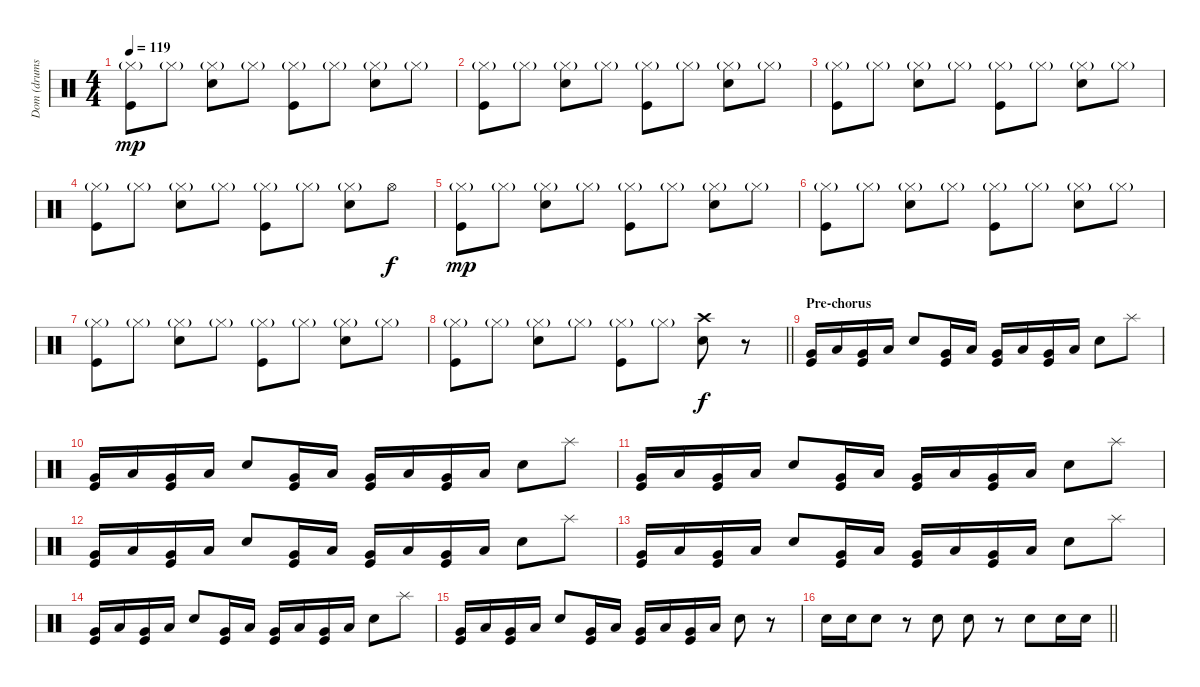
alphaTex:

\track ("Dom (drums)" "Dom (drums") {instrument percussion}
\staff {score}
\articulation defaults
\ts (4 4)
\tempo 119
\clef neutral
\ks c
("Hi-Hat (closed)"{g} "Kick (hit)").8{dy mp} "Hi-Hat (closed)"{g}.8 ("Hi-Hat (closed)"{g} "Snare (hit) 2").8 "Hi-Hat (closed)"{g}.8 ("Hi-Hat (closed)"{g} "Kick (hit)").8 "Hi-Hat (closed)"{g}.8 ("Hi-Hat (closed)"{g} "Snare (hit) 2").8 "Hi-Hat (closed)"{g}.8 |
("Hi-Hat (closed)"{g} "Kick (hit)").8 "Hi-Hat (closed)"{g}.8 ("Hi-Hat (closed)"{g} "Snare (hit) 2").8 "Hi-Hat (closed)"{g}.8 ("Hi-Hat (closed)"{g} "Kick (hit)").8 "Hi-Hat (closed)"{g}.8 ("Hi-Hat (closed)"{g} "Snare (hit) 2").8 "Hi-Hat (closed)"{g}.8 |
("Hi-Hat (closed)"{g} "Kick (hit)").8 "Hi-Hat (closed)"{g}.8 ("Hi-Hat (closed)"{g} "Snare (hit) 2").8 "Hi-Hat (closed)"{g}.8 ("Hi-Hat (closed)"{g} "Kick (hit)").8 "Hi-Hat (closed)"{g}.8 ("Hi-Hat (closed)"{g} "Snare (hit) 2").8 "Hi-Hat (closed)"{g}.8 |
("Hi-Hat (closed)"{g} "Kick (hit)").8 "Hi-Hat (closed)"{g}.8 ("Hi-Hat (closed)"{g} "Snare (hit) 2").8 "Hi-Hat (closed)"{g}.8 ("Hi-Hat (closed)"{g} "Kick (hit)").8 "Hi-Hat (closed)"{g}.8 ("Hi-Hat (closed)"{g} "Snare (hit) 2").8 "Hi-Hat (open)".8{dy f} |
("Hi-Hat (closed)"{g} "Kick (hit)").8{dy mp} "Hi-Hat (closed)"{g}.8 ("Hi-Hat (closed)"{g} "Snare (hit) 2").8 "Hi-Hat (closed)"{g}.8 ("Hi-Hat (closed)"{g} "Kick (hit)").8 "Hi-Hat (closed)"{g}.8 ("Hi-Hat (closed)"{g} "Snare (hit) 2").8 "Hi-Hat (closed)"{g}.8 |
("Hi-Hat (closed)"{g} "Kick (hit)").8 "Hi-Hat (closed)"{g}.8 ("Hi-Hat (closed)"{g} "Snare (hit) 2").8 "Hi-Hat (closed)"{g}.8 ("Hi-Hat (closed)"{g} "Kick (hit)").8 "Hi-Hat (closed)"{g}.8 ("Hi-Hat (closed)"{g} "Snare (hit) 2").8 "Hi-Hat (closed)"{g}.8 |
("Hi-Hat (closed)"{g} "Kick (hit)").8 "Hi-Hat (closed)"{g}.8 ("Hi-Hat (closed)"{g} "Snare (hit) 2").8 "Hi-Hat (closed)"{g}.8 ("Hi-Hat (closed)"{g} "Kick (hit)").8 "Hi-Hat (closed)"{g}.8 ("Hi-Hat (closed)"{g} "Snare (hit) 2").8 "Hi-Hat (closed)"{g}.8 |
\barLineRight lightlight
("Hi-Hat (closed)"{g} "Kick (hit)").8 "Hi-Hat (closed)"{g}.8 ("Hi-Hat (closed)"{g} "Snare (hit) 2").8 "Hi-Hat (closed)"{g}.8 ("Hi-Hat (closed)"{g} "Kick (hit)").8 "Hi-Hat (closed)"{g}.8 ("Crash high (hit)" "Snare (hit) 2").8{dy f} r.8 |
\section ("" "Pre-chorus")
("Very Low Tom (hit)" "Kick (hit)").16 "Low Tom (hit)".16 ("Very Low Tom (hit)" "Kick (hit)").16 "Low Tom (hit)".16 "Snare (hit) 2".8 ("Very Low Tom (hit)" "Kick (hit)").16 "Low Tom (hit)".16 ("Very Low Tom (hit)" "Kick (hit)").16 "Low Tom (hit)".16 ("Very Low Tom (hit)" "Kick (hit)").16 "Low Tom (hit)".16 "Snare (hit) 2".8 "Splash (hit)".8 |
("Very Low Tom (hit)" "Kick (hit)").16 "Low Tom (hit)".16 ("Very Low Tom (hit)" "Kick (hit)").16 "Low Tom (hit)".16 "Snare (hit) 2".8 ("Very Low Tom (hit)" "Kick (hit)").16 "Low Tom (hit)".16 ("Very Low Tom (hit)" "Kick (hit)").16 "Low Tom (hit)".16 ("Very Low Tom (hit)" "Kick (hit)").16 "Low Tom (hit)".16 "Snare (hit) 2".8 "Splash (hit)".8 |
("Very Low Tom (hit)" "Kick (hit)").16 "Low Tom (hit)".16 ("Very Low Tom (hit)" "Kick (hit)").16 "Low Tom (hit)".16 "Snare (hit) 2".8 ("Very Low Tom (hit)" "Kick (hit)").16 "Low Tom (hit)".16 ("Very Low Tom (hit)" "Kick (hit)").16 "Low Tom (hit)".16 ("Very Low Tom (hit)" "Kick (hit)").16 "Low Tom (hit)".16 "Snare (hit) 2".8 "Splash (hit)".8 |
("Very Low Tom (hit)" "Kick (hit)").16 "Low Tom (hit)".16 ("Very Low Tom (hit)" "Kick (hit)").16 "Low Tom (hit)".16 "Snare (hit) 2".8 ("Very Low Tom (hit)" "Kick (hit)").16 "Low Tom (hit)".16 ("Very Low Tom (hit)" "Kick (hit)").16 "Low Tom (hit)".16 ("Very Low Tom (hit)" "Kick (hit)").16 "Low Tom (hit)".16 "Snare (hit) 2".8 "Splash (hit)".8 |
("Very Low Tom (hit)" "Kick (hit)").16 "Low Tom (hit)".16 ("Very Low Tom (hit)" "Kick (hit)").16 "Low Tom (hit)".16 "Snare (hit) 2".8 ("Very Low Tom (hit)" "Kick (hit)").16 "Low Tom (hit)".16 ("Very Low Tom (hit)" "Kick (hit)").16 "Low Tom (hit)".16 ("Very Low Tom (hit)" "Kick (hit)").16 "Low Tom (hit)".16 "Snare (hit) 2".8 "Splash (hit)".8 |
("Very Low Tom (hit)" "Kick (hit)").16 "Low Tom (hit)".16 ("Very Low Tom (hit)" "Kick (hit)").16 "Low Tom (hit)".16 "Snare (hit) 2".8 ("Very Low Tom (hit)" "Kick (hit)").16 "Low Tom (hit)".16 ("Very Low Tom (hit)" "Kick (hit)").16 "Low Tom (hit)".16 ("Very Low Tom (hit)" "Kick (hit)").16 "Low Tom (hit)".16 "Snare (hit) 2".8 "Splash (hit)".8 |
("Very Low Tom (hit)" "Kick (hit)").16 "Low Tom (hit)".16 ("Very Low Tom (hit)" "Kick (hit)").16 "Low Tom (hit)".16 "Snare (hit) 2".8 ("Very Low Tom (hit)" "Kick (hit)").16 "Low Tom (hit)".16 ("Very Low Tom (hit)" "Kick (hit)").16 "Low Tom (hit)".16 ("Very Low Tom (hit)" "Kick (hit)").16 "Low Tom (hit)".16 "Snare (hit) 2".8 r.8 |
\barLineRight lightlight "Snare (hit) 2".16 "Snare (hit) 2".16 "Snare (hit) 2".8
r.8 "Snare (hit) 2".8 "Snare (hit) 2".8 r.8 "Snare (hit) 2".8 "Snare (hit) 2".16 "Snare (hit) 2".16
